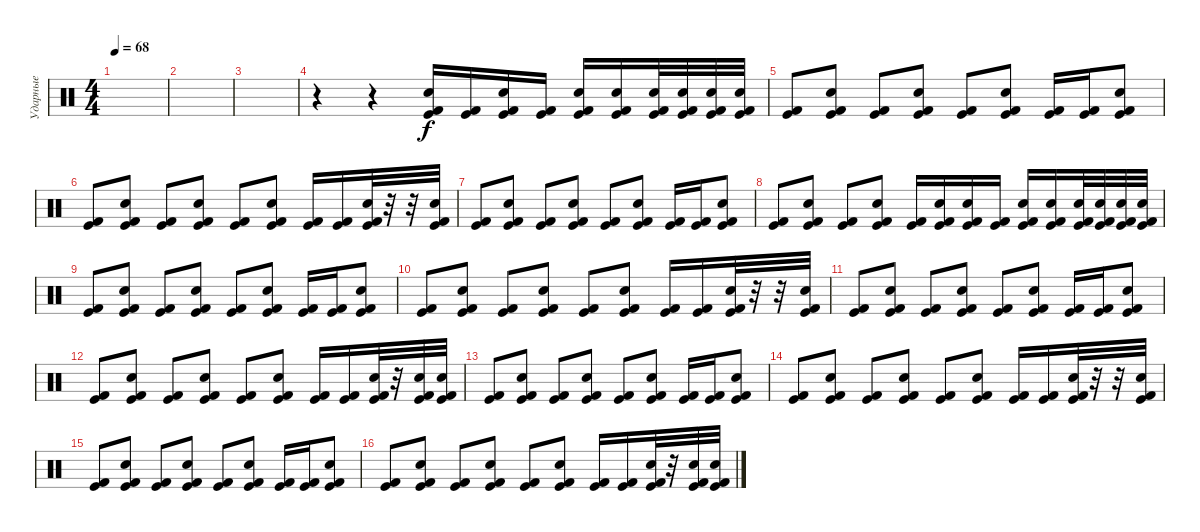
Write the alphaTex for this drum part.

\track ("Ударные" "Ударные") {instrument percussion}
\staff {score}
\articulation defaults
\ts (4 4)
\tempo 68
\clef neutral
\ks c
|
|
|
r.4 r.4 ("Snare (hit) 2" "Kick (hit) 2" "Kick (hit)").16 ("Kick (hit) 2" "Kick (hit)").16 ("Snare (hit) 2" "Kick (hit) 2" "Kick (hit)").16 ("Kick (hit) 2" "Kick (hit)").16 ("Snare (hit) 2" "Kick (hit) 2" "Kick (hit)").16 ("Snare (hit) 2" "Kick (hit) 2" "Kick (hit)").16 ("Snare (hit) 2" "Kick (hit) 2" "Kick (hit)").32 ("Snare (hit) 2" "Kick (hit) 2" "Kick (hit)").32 ("Snare (hit) 2" "Kick (hit) 2" "Kick (hit)").32 ("Snare (hit) 2" "Kick (hit) 2" "Kick (hit)").32 |
("Kick (hit) 2" "Kick (hit)").8 ("Snare (hit) 2" "Kick (hit) 2" "Kick (hit)").8 ("Kick (hit) 2" "Kick (hit)").8 ("Snare (hit) 2" "Kick (hit) 2" "Kick (hit)").8 ("Kick (hit) 2" "Kick (hit)").8 ("Snare (hit) 2" "Kick (hit) 2" "Kick (hit)").8 ("Kick (hit) 2" "Kick (hit)").16 ("Kick (hit) 2" "Kick (hit)").16 ("Snare (hit) 2" "Kick (hit) 2" "Kick (hit)").8 |
("Kick (hit) 2" "Kick (hit)").8 ("Snare (hit) 2" "Kick (hit) 2" "Kick (hit)").8 ("Kick (hit) 2" "Kick (hit)").8 ("Snare (hit) 2" "Kick (hit) 2" "Kick (hit)").8 ("Kick (hit) 2" "Kick (hit)").8 ("Snare (hit) 2" "Kick (hit) 2" "Kick (hit)").8 ("Kick (hit) 2" "Kick (hit)").16 ("Kick (hit) 2" "Kick (hit)").16 ("Snare (hit) 2" "Kick (hit) 2" "Kick (hit)").32 r.32 r.32 ("Snare (hit) 2" "Kick (hit) 2" "Kick (hit)").32 |
("Kick (hit) 2" "Kick (hit)").8 ("Snare (hit) 2" "Kick (hit) 2" "Kick (hit)").8 ("Kick (hit) 2" "Kick (hit)").8 ("Snare (hit) 2" "Kick (hit) 2" "Kick (hit)").8 ("Kick (hit) 2" "Kick (hit)").8 ("Snare (hit) 2" "Kick (hit) 2" "Kick (hit)").8 ("Kick (hit) 2" "Kick (hit)").16 ("Kick (hit) 2" "Kick (hit)").16 ("Snare (hit) 2" "Kick (hit) 2" "Kick (hit)").8 |
("Kick (hit) 2" "Kick (hit)").8 ("Snare (hit) 2" "Kick (hit) 2" "Kick (hit)").8 ("Kick (hit) 2" "Kick (hit)").8 ("Snare (hit) 2" "Kick (hit) 2" "Kick (hit)").8 ("Kick (hit) 2" "Kick (hit)").16 ("Snare (hit) 2" "Kick (hit) 2" "Kick (hit)").16 ("Snare (hit) 2" "Kick (hit) 2" "Kick (hit)").16 ("Kick (hit) 2" "Kick (hit)").16 ("Snare (hit) 2" "Kick (hit) 2" "Kick (hit)").16 ("Snare (hit) 2" "Kick (hit) 2" "Kick (hit)").16 ("Snare (hit) 2" "Kick (hit) 2" "Kick (hit)").32 ("Snare (hit) 2" "Kick (hit) 2" "Kick (hit)").32 ("Snare (hit) 2" "Kick (hit) 2" "Kick (hit)").32 ("Snare (hit) 2" "Kick (hit) 2" "Kick (hit)").32 |
("Kick (hit) 2" "Kick (hit)").8 ("Snare (hit) 2" "Kick (hit) 2" "Kick (hit)").8 ("Kick (hit) 2" "Kick (hit)").8 ("Snare (hit) 2" "Kick (hit) 2" "Kick (hit)").8 ("Kick (hit) 2" "Kick (hit)").8 ("Snare (hit) 2" "Kick (hit) 2" "Kick (hit)").8 ("Kick (hit) 2" "Kick (hit)").16 ("Kick (hit) 2" "Kick (hit)").16 ("Snare (hit) 2" "Kick (hit) 2" "Kick (hit)").8 |
("Kick (hit) 2" "Kick (hit)").8 ("Snare (hit) 2" "Kick (hit) 2" "Kick (hit)").8 ("Kick (hit) 2" "Kick (hit)").8 ("Snare (hit) 2" "Kick (hit) 2" "Kick (hit)").8 ("Kick (hit) 2" "Kick (hit)").8 ("Snare (hit) 2" "Kick (hit) 2" "Kick (hit)").8 ("Kick (hit) 2" "Kick (hit)").16 ("Kick (hit) 2" "Kick (hit)").16 ("Snare (hit) 2" "Kick (hit) 2" "Kick (hit)").32 r.32 r.32 ("Snare (hit) 2" "Kick (hit) 2" "Kick (hit)").32 |
("Kick (hit) 2" "Kick (hit)").8 ("Snare (hit) 2" "Kick (hit) 2" "Kick (hit)").8 ("Kick (hit) 2" "Kick (hit)").8 ("Snare (hit) 2" "Kick (hit) 2" "Kick (hit)").8 ("Kick (hit) 2" "Kick (hit)").8 ("Snare (hit) 2" "Kick (hit) 2" "Kick (hit)").8 ("Kick (hit) 2" "Kick (hit)").16 ("Kick (hit) 2" "Kick (hit)").16 ("Snare (hit) 2" "Kick (hit) 2" "Kick (hit)").8 |
("Kick (hit) 2" "Kick (hit)").8 ("Snare (hit) 2" "Kick (hit) 2" "Kick (hit)").8 ("Kick (hit) 2" "Kick (hit)").8 ("Snare (hit) 2" "Kick (hit) 2" "Kick (hit)").8 ("Kick (hit) 2" "Kick (hit)").8 ("Snare (hit) 2" "Kick (hit) 2" "Kick (hit)").8 ("Kick (hit) 2" "Kick (hit)").16 ("Kick (hit) 2" "Kick (hit)").16 ("Snare (hit) 2" "Kick (hit) 2" "Kick (hit)").32 r.32 ("Snare (hit) 2" "Kick (hit) 2" "Kick (hit)").32 ("Snare (hit) 2" "Kick (hit) 2" "Kick (hit)").32 |
("Kick (hit) 2" "Kick (hit)").8 ("Snare (hit) 2" "Kick (hit) 2" "Kick (hit)").8 ("Kick (hit) 2" "Kick (hit)").8 ("Snare (hit) 2" "Kick (hit) 2" "Kick (hit)").8 ("Kick (hit) 2" "Kick (hit)").8 ("Snare (hit) 2" "Kick (hit) 2" "Kick (hit)").8 ("Kick (hit) 2" "Kick (hit)").16 ("Kick (hit) 2" "Kick (hit)").16 ("Snare (hit) 2" "Kick (hit) 2" "Kick (hit)").8 |
("Kick (hit) 2" "Kick (hit)").8 ("Snare (hit) 2" "Kick (hit) 2" "Kick (hit)").8 ("Kick (hit) 2" "Kick (hit)").8 ("Snare (hit) 2" "Kick (hit) 2" "Kick (hit)").8 ("Kick (hit) 2" "Kick (hit)").8 ("Snare (hit) 2" "Kick (hit) 2" "Kick (hit)").8 ("Kick (hit) 2" "Kick (hit)").16 ("Kick (hit) 2" "Kick (hit)").16 ("Snare (hit) 2" "Kick (hit) 2" "Kick (hit)").32 r.32 r.32 ("Snare (hit) 2" "Kick (hit) 2" "Kick (hit)").32 |
("Kick (hit) 2" "Kick (hit)").8 ("Snare (hit) 2" "Kick (hit) 2" "Kick (hit)").8 ("Kick (hit) 2" "Kick (hit)").8 ("Snare (hit) 2" "Kick (hit) 2" "Kick (hit)").8 ("Kick (hit) 2" "Kick (hit)").8 ("Snare (hit) 2" "Kick (hit) 2" "Kick (hit)").8 ("Kick (hit) 2" "Kick (hit)").16 ("Kick (hit) 2" "Kick (hit)").16 ("Snare (hit) 2" "Kick (hit) 2" "Kick (hit)").8 |
("Kick (hit) 2" "Kick (hit)").8 ("Snare (hit) 2" "Kick (hit) 2" "Kick (hit)").8 ("Kick (hit) 2" "Kick (hit)").8 ("Snare (hit) 2" "Kick (hit) 2" "Kick (hit)").8 ("Kick (hit) 2" "Kick (hit)").8 ("Snare (hit) 2" "Kick (hit) 2" "Kick (hit)").8 ("Kick (hit) 2" "Kick (hit)").16 ("Kick (hit) 2" "Kick (hit)").16 ("Snare (hit) 2" "Kick (hit) 2" "Kick (hit)").32 r.32 ("Snare (hit) 2" "Kick (hit) 2" "Kick (hit)").32 ("Snare (hit) 2" "Kick (hit) 2" "Kick (hit)").32
